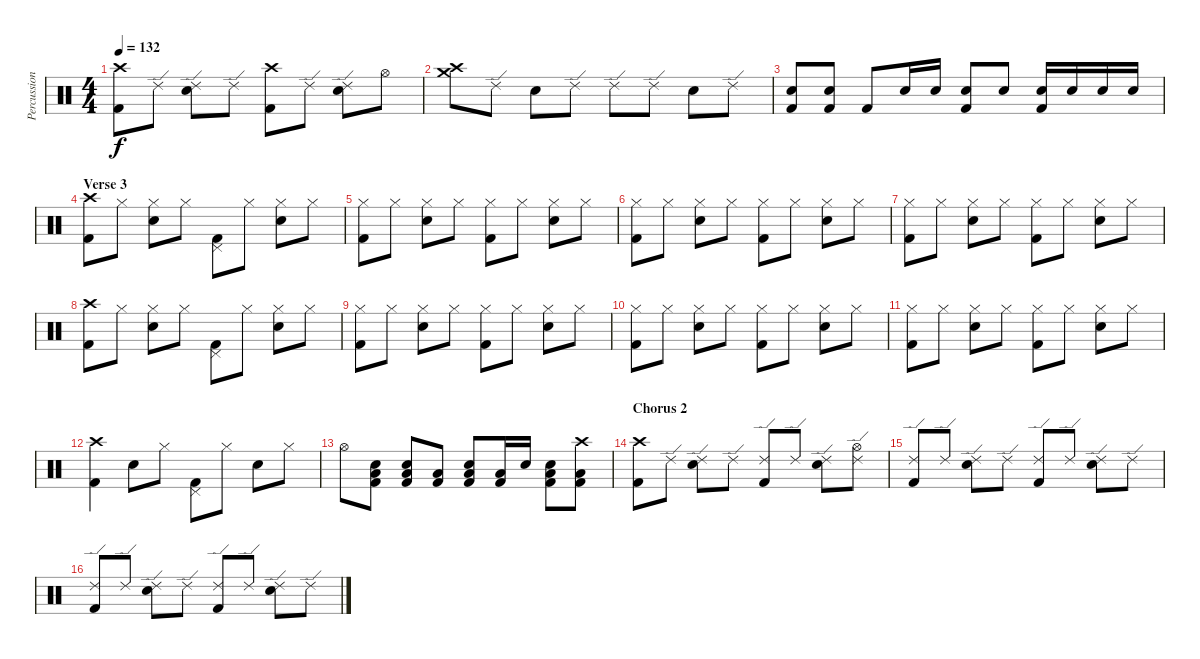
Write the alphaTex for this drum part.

\track ("Percussion" "Percussion") {instrument percussion}
\staff {score}
\articulation defaults
\ts (4 4)
\tempo 132
\clef neutral
\ks c
("Crash high (hit)" "Kick (hit) 2").8{dy f} "Ride (edge) 2".8 ("Ride (edge) 2" "Snare (hit) 2").8 "Ride (edge) 2".8 ("Crash high (hit)" "Kick (hit) 2").8 "Ride (edge) 2".8 ("Ride (edge) 2" "Snare (hit) 2").8 "Hi-Hat (open)".8 |
("Crash high (hit)" "Crash medium (hit)").8 "Ride (edge) 2".8 "Snare (hit) 2".8 "Ride (edge) 2".8 "Ride (edge) 2".8 "Ride (edge) 2".8 "Snare (hit) 2".8 "Ride (edge) 2".8 |
("Snare (hit) 2" "Kick (hit) 2").8 ("Snare (hit) 2" "Kick (hit) 2").8 "Kick (hit) 2".8 "Snare (hit) 2".16 "Snare (hit) 2".16 ("Snare (hit) 2" "Kick (hit) 2").8 "Snare (hit) 2".8 ("Snare (hit) 2" "Kick (hit) 2").16 "Snare (hit) 2".16 "Snare (hit) 2".16 "Snare (hit) 2".16 |
\section ("" "Verse 3")
("Crash high (hit)" "Kick (hit) 2").8 "Hi-Hat (closed)".8 ("Hi-Hat (closed)" "Snare (hit) 2").8 "Hi-Hat (closed)".8 ("Pedal Hi-Hat (hit)" "Kick (hit) 2").8 "Hi-Hat (closed)".8 ("Hi-Hat (closed)" "Snare (hit) 2").8 "Hi-Hat (closed)".8 |
("Hi-Hat (closed)" "Kick (hit) 2").8 "Hi-Hat (closed)".8 ("Hi-Hat (closed)" "Snare (hit) 2").8 "Hi-Hat (closed)".8 ("Hi-Hat (closed)" "Kick (hit) 2").8 "Hi-Hat (closed)".8 ("Hi-Hat (closed)" "Snare (hit) 2").8 "Hi-Hat (closed)".8 |
("Hi-Hat (closed)" "Kick (hit) 2").8 "Hi-Hat (closed)".8 ("Hi-Hat (closed)" "Snare (hit) 2").8 "Hi-Hat (closed)".8 ("Hi-Hat (closed)" "Kick (hit) 2").8 "Hi-Hat (closed)".8 ("Hi-Hat (closed)" "Snare (hit) 2").8 "Hi-Hat (closed)".8 |
("Hi-Hat (closed)" "Kick (hit) 2").8 "Hi-Hat (closed)".8 ("Hi-Hat (closed)" "Snare (hit) 2").8 "Hi-Hat (closed)".8 ("Hi-Hat (closed)" "Kick (hit) 2").8 "Hi-Hat (closed)".8 ("Hi-Hat (closed)" "Snare (hit) 2").8 "Hi-Hat (closed)".8 |
("Crash high (hit)" "Kick (hit) 2").8 "Hi-Hat (closed)".8 ("Hi-Hat (closed)" "Snare (hit) 2").8 "Hi-Hat (closed)".8 ("Pedal Hi-Hat (hit)" "Kick (hit) 2").8 "Hi-Hat (closed)".8 ("Hi-Hat (closed)" "Snare (hit) 2").8 "Hi-Hat (closed)".8 |
("Hi-Hat (closed)" "Kick (hit) 2").8 "Hi-Hat (closed)".8 ("Hi-Hat (closed)" "Snare (hit) 2").8 "Hi-Hat (closed)".8 ("Hi-Hat (closed)" "Kick (hit) 2").8 "Hi-Hat (closed)".8 ("Hi-Hat (closed)" "Snare (hit) 2").8 "Hi-Hat (closed)".8 |
("Hi-Hat (closed)" "Kick (hit) 2").8 "Hi-Hat (closed)".8 ("Hi-Hat (closed)" "Snare (hit) 2").8 "Hi-Hat (closed)".8 ("Hi-Hat (closed)" "Kick (hit) 2").8 "Hi-Hat (closed)".8 ("Hi-Hat (closed)" "Snare (hit) 2").8 "Hi-Hat (closed)".8 |
("Hi-Hat (closed)" "Kick (hit) 2").8 "Hi-Hat (closed)".8 ("Hi-Hat (closed)" "Snare (hit) 2").8 "Hi-Hat (closed)".8 ("Hi-Hat (closed)" "Kick (hit) 2").8 "Hi-Hat (closed)".8 ("Hi-Hat (closed)" "Snare (hit) 2").8 "Hi-Hat (closed)".8 |
("Crash high (hit)" "Kick (hit) 2").4 "Snare (hit) 2".8 "Hi-Hat (closed)".8 ("Pedal Hi-Hat (hit)" "Kick (hit) 2").8 "Hi-Hat (closed)".8 "Snare (hit) 2".8 "Hi-Hat (closed)".8 |
"Hi-Hat (open)".8 ("Low Tom (hit)" "Kick (hit) 2" "Snare (hit) 2").8 ("Low Tom (hit)" "Kick (hit) 2" "Snare (hit) 2").8 ("Low Tom (hit)" "Kick (hit) 2").8 ("Low Tom (hit)" "Kick (hit) 2" "Snare (hit) 2").8 ("Low Tom (hit)" "Kick (hit) 2").16 "Snare (hit) 2".16 ("Low Tom (hit)" "Kick (hit) 2" "Snare (hit) 2").8 ("Low Tom (hit)" "Kick (hit) 2" "Crash high (hit)").8 |
\section ("" "Chorus 2")
("Crash high (hit)" "Kick (hit) 2").8 "Ride (edge) 2".8 ("Ride (edge) 2" "Snare (hit) 2").8 "Ride (edge) 2".8 ("Ride (edge) 2" "Kick (hit) 2").8 "Ride (edge) 2".8 ("Ride (edge) 2" "Snare (hit) 2").8 ("Ride (edge) 2" "Hi-Hat (open)").8 |
("Ride (edge) 2" "Kick (hit) 2").8 "Ride (edge) 2".8 ("Ride (edge) 2" "Snare (hit) 2").8 "Ride (edge) 2".8 ("Ride (edge) 2" "Kick (hit) 2").8 "Ride (edge) 2".8 ("Ride (edge) 2" "Snare (hit) 2").8 "Ride (edge) 2".8 |
("Ride (edge) 2" "Kick (hit) 2").8 "Ride (edge) 2".8 ("Ride (edge) 2" "Snare (hit) 2").8 "Ride (edge) 2".8 ("Ride (edge) 2" "Kick (hit) 2").8 "Ride (edge) 2".8 ("Ride (edge) 2" "Snare (hit) 2").8 "Ride (edge) 2".8
